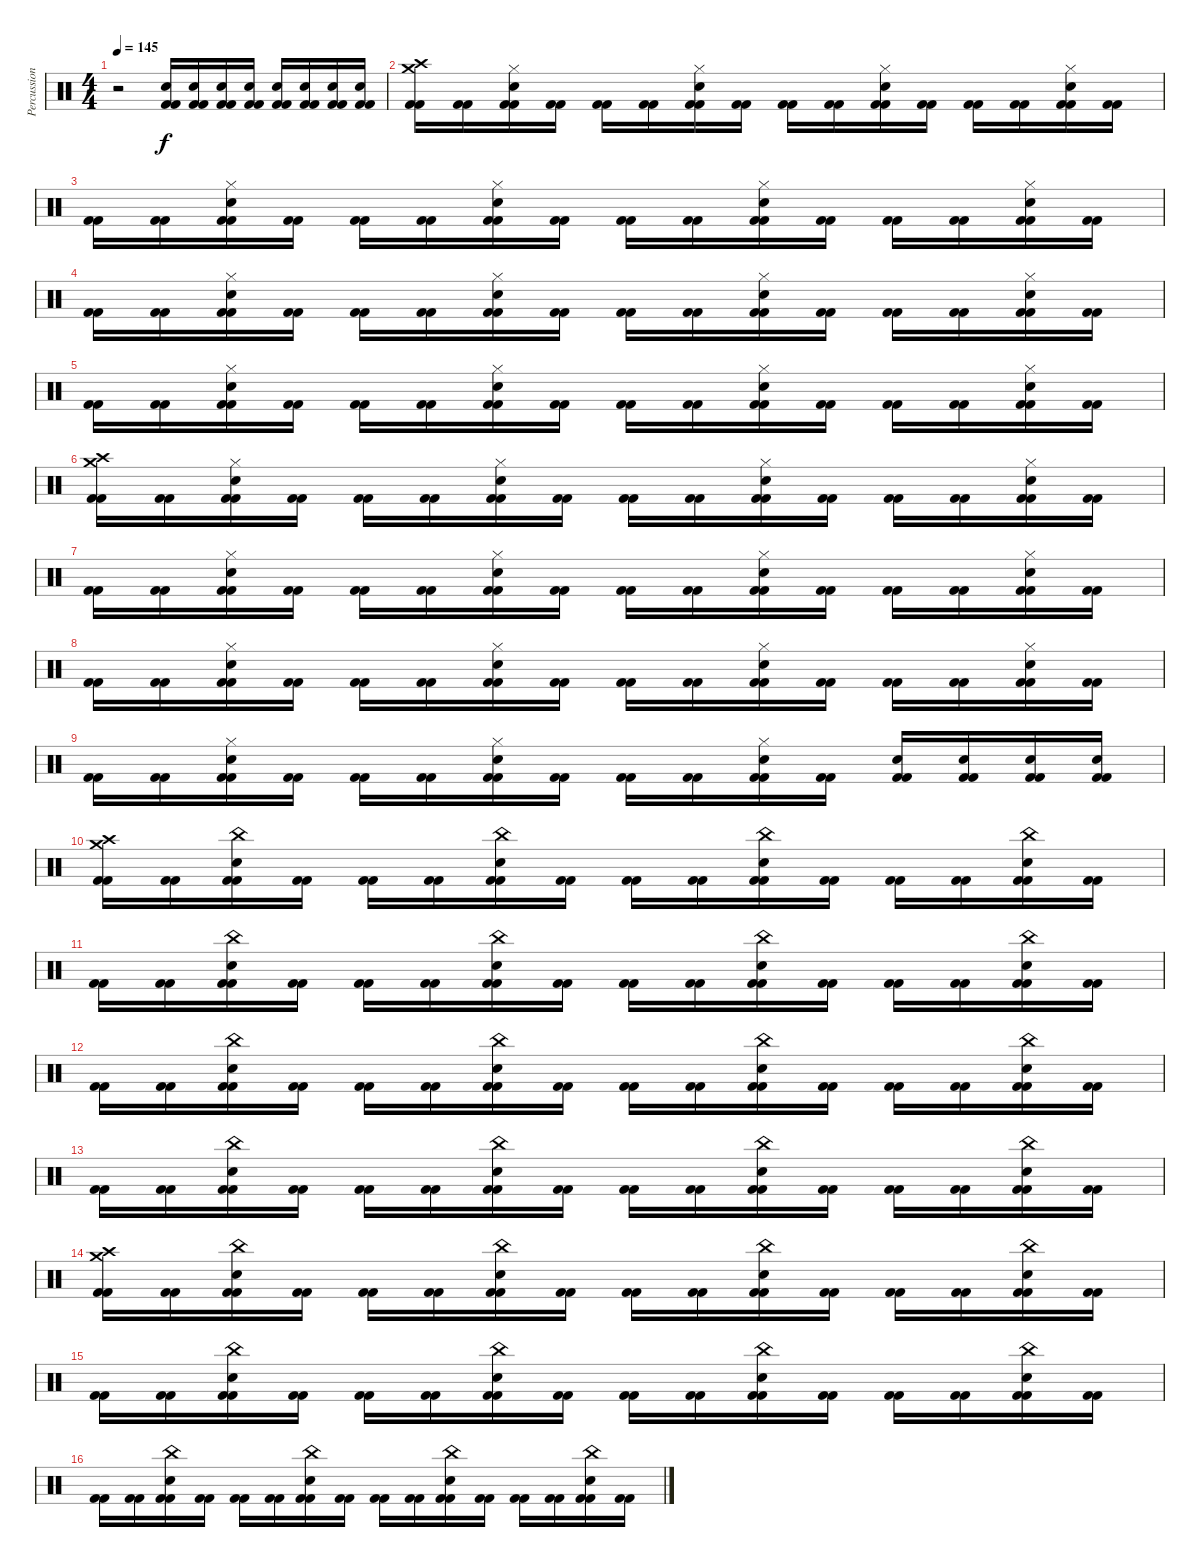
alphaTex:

\track ("Percussion" "Percussion") {instrument percussion}
\staff {score}
\articulation defaults
\ts (4 4)
\tempo 145
\clef neutral
\ks c
r.2{dy f} ("Snare (hit) 2" "Kick (hit) 2" "Kick (hit) 2").16 ("Snare (hit) 2" "Kick (hit) 2" "Kick (hit) 2").16 ("Snare (hit) 2" "Kick (hit) 2" "Kick (hit) 2").16 ("Snare (hit) 2" "Kick (hit) 2" "Kick (hit) 2").16 ("Snare (hit) 2" "Kick (hit) 2" "Kick (hit) 2").16 ("Snare (hit) 2" "Kick (hit) 2" "Kick (hit) 2").16 ("Snare (hit) 2" "Kick (hit) 2" "Kick (hit) 2").16 ("Snare (hit) 2" "Kick (hit) 2" "Kick (hit) 2").16 |
("Crash high (hit)" "Crash medium (hit)" "Kick (hit) 2" "Kick (hit) 2").16 ("Kick (hit) 2" "Kick (hit) 2").16 ("Hi-Hat (closed)" "Snare (hit) 2" "Kick (hit) 2" "Kick (hit) 2").16 ("Kick (hit) 2" "Kick (hit) 2").16 ("Kick (hit) 2" "Kick (hit) 2").16 ("Kick (hit) 2" "Kick (hit) 2").16 ("Hi-Hat (closed)" "Snare (hit) 2" "Kick (hit) 2" "Kick (hit) 2").16 ("Kick (hit) 2" "Kick (hit) 2").16 ("Kick (hit) 2" "Kick (hit) 2").16 ("Kick (hit) 2" "Kick (hit) 2").16 ("Hi-Hat (closed)" "Snare (hit) 2" "Kick (hit) 2" "Kick (hit) 2").16 ("Kick (hit) 2" "Kick (hit) 2").16 ("Kick (hit) 2" "Kick (hit) 2").16 ("Kick (hit) 2" "Kick (hit) 2").16 ("Hi-Hat (closed)" "Snare (hit) 2" "Kick (hit) 2" "Kick (hit) 2").16 ("Kick (hit) 2" "Kick (hit) 2").16 |
("Kick (hit) 2" "Kick (hit) 2").16 ("Kick (hit) 2" "Kick (hit) 2").16 ("Hi-Hat (closed)" "Snare (hit) 2" "Kick (hit) 2" "Kick (hit) 2").16 ("Kick (hit) 2" "Kick (hit) 2").16 ("Kick (hit) 2" "Kick (hit) 2").16 ("Kick (hit) 2" "Kick (hit) 2").16 ("Hi-Hat (closed)" "Snare (hit) 2" "Kick (hit) 2" "Kick (hit) 2").16 ("Kick (hit) 2" "Kick (hit) 2").16 ("Kick (hit) 2" "Kick (hit) 2").16 ("Kick (hit) 2" "Kick (hit) 2").16 ("Hi-Hat (closed)" "Snare (hit) 2" "Kick (hit) 2" "Kick (hit) 2").16 ("Kick (hit) 2" "Kick (hit) 2").16 ("Kick (hit) 2" "Kick (hit) 2").16 ("Kick (hit) 2" "Kick (hit) 2").16 ("Hi-Hat (closed)" "Snare (hit) 2" "Kick (hit) 2" "Kick (hit) 2").16 ("Kick (hit) 2" "Kick (hit) 2").16 |
("Kick (hit) 2" "Kick (hit) 2").16 ("Kick (hit) 2" "Kick (hit) 2").16 ("Hi-Hat (closed)" "Snare (hit) 2" "Kick (hit) 2" "Kick (hit) 2").16 ("Kick (hit) 2" "Kick (hit) 2").16 ("Kick (hit) 2" "Kick (hit) 2").16 ("Kick (hit) 2" "Kick (hit) 2").16 ("Hi-Hat (closed)" "Snare (hit) 2" "Kick (hit) 2" "Kick (hit) 2").16 ("Kick (hit) 2" "Kick (hit) 2").16 ("Kick (hit) 2" "Kick (hit) 2").16 ("Kick (hit) 2" "Kick (hit) 2").16 ("Hi-Hat (closed)" "Snare (hit) 2" "Kick (hit) 2" "Kick (hit) 2").16 ("Kick (hit) 2" "Kick (hit) 2").16 ("Kick (hit) 2" "Kick (hit) 2").16 ("Kick (hit) 2" "Kick (hit) 2").16 ("Hi-Hat (closed)" "Snare (hit) 2" "Kick (hit) 2" "Kick (hit) 2").16 ("Kick (hit) 2" "Kick (hit) 2").16 |
("Kick (hit) 2" "Kick (hit) 2").16 ("Kick (hit) 2" "Kick (hit) 2").16 ("Hi-Hat (closed)" "Snare (hit) 2" "Kick (hit) 2" "Kick (hit) 2").16 ("Kick (hit) 2" "Kick (hit) 2").16 ("Kick (hit) 2" "Kick (hit) 2").16 ("Kick (hit) 2" "Kick (hit) 2").16 ("Hi-Hat (closed)" "Snare (hit) 2" "Kick (hit) 2" "Kick (hit) 2").16 ("Kick (hit) 2" "Kick (hit) 2").16 ("Kick (hit) 2" "Kick (hit) 2").16 ("Kick (hit) 2" "Kick (hit) 2").16 ("Hi-Hat (closed)" "Snare (hit) 2" "Kick (hit) 2" "Kick (hit) 2").16 ("Kick (hit) 2" "Kick (hit) 2").16 ("Kick (hit) 2" "Kick (hit) 2").16 ("Kick (hit) 2" "Kick (hit) 2").16 ("Hi-Hat (closed)" "Snare (hit) 2" "Kick (hit) 2" "Kick (hit) 2").16 ("Kick (hit) 2" "Kick (hit) 2").16 |
("Crash high (hit)" "Crash medium (hit)" "Kick (hit) 2" "Kick (hit) 2").16 ("Kick (hit) 2" "Kick (hit) 2").16 ("Hi-Hat (closed)" "Snare (hit) 2" "Kick (hit) 2" "Kick (hit) 2").16 ("Kick (hit) 2" "Kick (hit) 2").16 ("Kick (hit) 2" "Kick (hit) 2").16 ("Kick (hit) 2" "Kick (hit) 2").16 ("Hi-Hat (closed)" "Snare (hit) 2" "Kick (hit) 2" "Kick (hit) 2").16 ("Kick (hit) 2" "Kick (hit) 2").16 ("Kick (hit) 2" "Kick (hit) 2").16 ("Kick (hit) 2" "Kick (hit) 2").16 ("Hi-Hat (closed)" "Snare (hit) 2" "Kick (hit) 2" "Kick (hit) 2").16 ("Kick (hit) 2" "Kick (hit) 2").16 ("Kick (hit) 2" "Kick (hit) 2").16 ("Kick (hit) 2" "Kick (hit) 2").16 ("Hi-Hat (closed)" "Snare (hit) 2" "Kick (hit) 2" "Kick (hit) 2").16 ("Kick (hit) 2" "Kick (hit) 2").16 |
("Kick (hit) 2" "Kick (hit) 2").16 ("Kick (hit) 2" "Kick (hit) 2").16 ("Hi-Hat (closed)" "Snare (hit) 2" "Kick (hit) 2" "Kick (hit) 2").16 ("Kick (hit) 2" "Kick (hit) 2").16 ("Kick (hit) 2" "Kick (hit) 2").16 ("Kick (hit) 2" "Kick (hit) 2").16 ("Hi-Hat (closed)" "Snare (hit) 2" "Kick (hit) 2" "Kick (hit) 2").16 ("Kick (hit) 2" "Kick (hit) 2").16 ("Kick (hit) 2" "Kick (hit) 2").16 ("Kick (hit) 2" "Kick (hit) 2").16 ("Hi-Hat (closed)" "Snare (hit) 2" "Kick (hit) 2" "Kick (hit) 2").16 ("Kick (hit) 2" "Kick (hit) 2").16 ("Kick (hit) 2" "Kick (hit) 2").16 ("Kick (hit) 2" "Kick (hit) 2").16 ("Hi-Hat (closed)" "Snare (hit) 2" "Kick (hit) 2" "Kick (hit) 2").16 ("Kick (hit) 2" "Kick (hit) 2").16 |
("Kick (hit) 2" "Kick (hit) 2").16 ("Kick (hit) 2" "Kick (hit) 2").16 ("Hi-Hat (closed)" "Snare (hit) 2" "Kick (hit) 2" "Kick (hit) 2").16 ("Kick (hit) 2" "Kick (hit) 2").16 ("Kick (hit) 2" "Kick (hit) 2").16 ("Kick (hit) 2" "Kick (hit) 2").16 ("Hi-Hat (closed)" "Snare (hit) 2" "Kick (hit) 2" "Kick (hit) 2").16 ("Kick (hit) 2" "Kick (hit) 2").16 ("Kick (hit) 2" "Kick (hit) 2").16 ("Kick (hit) 2" "Kick (hit) 2").16 ("Hi-Hat (closed)" "Snare (hit) 2" "Kick (hit) 2" "Kick (hit) 2").16 ("Kick (hit) 2" "Kick (hit) 2").16 ("Kick (hit) 2" "Kick (hit) 2").16 ("Kick (hit) 2" "Kick (hit) 2").16 ("Hi-Hat (closed)" "Snare (hit) 2" "Kick (hit) 2" "Kick (hit) 2").16 ("Kick (hit) 2" "Kick (hit) 2").16 |
("Kick (hit) 2" "Kick (hit) 2").16 ("Kick (hit) 2" "Kick (hit) 2").16 ("Hi-Hat (closed)" "Snare (hit) 2" "Kick (hit) 2" "Kick (hit) 2").16 ("Kick (hit) 2" "Kick (hit) 2").16 ("Kick (hit) 2" "Kick (hit) 2").16 ("Kick (hit) 2" "Kick (hit) 2").16 ("Hi-Hat (closed)" "Snare (hit) 2" "Kick (hit) 2" "Kick (hit) 2").16 ("Kick (hit) 2" "Kick (hit) 2").16 ("Kick (hit) 2" "Kick (hit) 2").16 ("Kick (hit) 2" "Kick (hit) 2").16 ("Hi-Hat (closed)" "Snare (hit) 2" "Kick (hit) 2" "Kick (hit) 2").16 ("Kick (hit) 2" "Kick (hit) 2").16 ("Snare (hit) 2" "Kick (hit) 2" "Kick (hit) 2").16 ("Snare (hit) 2" "Kick (hit) 2" "Kick (hit) 2").16 ("Snare (hit) 2" "Kick (hit) 2" "Kick (hit) 2").16 ("Snare (hit) 2" "Kick (hit) 2" "Kick (hit) 2").16 |
("Crash high (hit)" "Crash medium (hit)" "Kick (hit) 2" "Kick (hit) 2").16 ("Kick (hit) 2" "Kick (hit) 2").16 ("China (hit)" "Snare (hit) 2" "Kick (hit) 2" "Kick (hit) 2").16 ("Kick (hit) 2" "Kick (hit) 2").16 ("Kick (hit) 2" "Kick (hit) 2").16 ("Kick (hit) 2" "Kick (hit) 2").16 ("China (hit)" "Snare (hit) 2" "Kick (hit) 2" "Kick (hit) 2").16 ("Kick (hit) 2" "Kick (hit) 2").16 ("Kick (hit) 2" "Kick (hit) 2").16 ("Kick (hit) 2" "Kick (hit) 2").16 ("China (hit)" "Snare (hit) 2" "Kick (hit) 2" "Kick (hit) 2").16 ("Kick (hit) 2" "Kick (hit) 2").16 ("Kick (hit) 2" "Kick (hit) 2").16 ("Kick (hit) 2" "Kick (hit) 2").16 ("China (hit)" "Snare (hit) 2" "Kick (hit) 2" "Kick (hit) 2").16 ("Kick (hit) 2" "Kick (hit) 2").16 |
("Kick (hit) 2" "Kick (hit) 2").16 ("Kick (hit) 2" "Kick (hit) 2").16 ("China (hit)" "Snare (hit) 2" "Kick (hit) 2" "Kick (hit) 2").16 ("Kick (hit) 2" "Kick (hit) 2").16 ("Kick (hit) 2" "Kick (hit) 2").16 ("Kick (hit) 2" "Kick (hit) 2").16 ("China (hit)" "Snare (hit) 2" "Kick (hit) 2" "Kick (hit) 2").16 ("Kick (hit) 2" "Kick (hit) 2").16 ("Kick (hit) 2" "Kick (hit) 2").16 ("Kick (hit) 2" "Kick (hit) 2").16 ("China (hit)" "Snare (hit) 2" "Kick (hit) 2" "Kick (hit) 2").16 ("Kick (hit) 2" "Kick (hit) 2").16 ("Kick (hit) 2" "Kick (hit) 2").16 ("Kick (hit) 2" "Kick (hit) 2").16 ("China (hit)" "Snare (hit) 2" "Kick (hit) 2" "Kick (hit) 2").16 ("Kick (hit) 2" "Kick (hit) 2").16 |
("Kick (hit) 2" "Kick (hit) 2").16 ("Kick (hit) 2" "Kick (hit) 2").16 ("China (hit)" "Snare (hit) 2" "Kick (hit) 2" "Kick (hit) 2").16 ("Kick (hit) 2" "Kick (hit) 2").16 ("Kick (hit) 2" "Kick (hit) 2").16 ("Kick (hit) 2" "Kick (hit) 2").16 ("China (hit)" "Snare (hit) 2" "Kick (hit) 2" "Kick (hit) 2").16 ("Kick (hit) 2" "Kick (hit) 2").16 ("Kick (hit) 2" "Kick (hit) 2").16 ("Kick (hit) 2" "Kick (hit) 2").16 ("China (hit)" "Snare (hit) 2" "Kick (hit) 2" "Kick (hit) 2").16 ("Kick (hit) 2" "Kick (hit) 2").16 ("Kick (hit) 2" "Kick (hit) 2").16 ("Kick (hit) 2" "Kick (hit) 2").16 ("China (hit)" "Snare (hit) 2" "Kick (hit) 2" "Kick (hit) 2").16 ("Kick (hit) 2" "Kick (hit) 2").16 |
("Kick (hit) 2" "Kick (hit) 2").16 ("Kick (hit) 2" "Kick (hit) 2").16 ("China (hit)" "Snare (hit) 2" "Kick (hit) 2" "Kick (hit) 2").16 ("Kick (hit) 2" "Kick (hit) 2").16 ("Kick (hit) 2" "Kick (hit) 2").16 ("Kick (hit) 2" "Kick (hit) 2").16 ("China (hit)" "Snare (hit) 2" "Kick (hit) 2" "Kick (hit) 2").16 ("Kick (hit) 2" "Kick (hit) 2").16 ("Kick (hit) 2" "Kick (hit) 2").16 ("Kick (hit) 2" "Kick (hit) 2").16 ("China (hit)" "Snare (hit) 2" "Kick (hit) 2" "Kick (hit) 2").16 ("Kick (hit) 2" "Kick (hit) 2").16 ("Kick (hit) 2" "Kick (hit) 2").16 ("Kick (hit) 2" "Kick (hit) 2").16 ("China (hit)" "Snare (hit) 2" "Kick (hit) 2" "Kick (hit) 2").16 ("Kick (hit) 2" "Kick (hit) 2").16 |
("Crash high (hit)" "Crash medium (hit)" "Kick (hit) 2" "Kick (hit) 2").16 ("Kick (hit) 2" "Kick (hit) 2").16 ("China (hit)" "Snare (hit) 2" "Kick (hit) 2" "Kick (hit) 2").16 ("Kick (hit) 2" "Kick (hit) 2").16 ("Kick (hit) 2" "Kick (hit) 2").16 ("Kick (hit) 2" "Kick (hit) 2").16 ("China (hit)" "Snare (hit) 2" "Kick (hit) 2" "Kick (hit) 2").16 ("Kick (hit) 2" "Kick (hit) 2").16 ("Kick (hit) 2" "Kick (hit) 2").16 ("Kick (hit) 2" "Kick (hit) 2").16 ("China (hit)" "Snare (hit) 2" "Kick (hit) 2" "Kick (hit) 2").16 ("Kick (hit) 2" "Kick (hit) 2").16 ("Kick (hit) 2" "Kick (hit) 2").16 ("Kick (hit) 2" "Kick (hit) 2").16 ("China (hit)" "Snare (hit) 2" "Kick (hit) 2" "Kick (hit) 2").16 ("Kick (hit) 2" "Kick (hit) 2").16 |
("Kick (hit) 2" "Kick (hit) 2").16 ("Kick (hit) 2" "Kick (hit) 2").16 ("China (hit)" "Snare (hit) 2" "Kick (hit) 2" "Kick (hit) 2").16 ("Kick (hit) 2" "Kick (hit) 2").16 ("Kick (hit) 2" "Kick (hit) 2").16 ("Kick (hit) 2" "Kick (hit) 2").16 ("China (hit)" "Snare (hit) 2" "Kick (hit) 2" "Kick (hit) 2").16 ("Kick (hit) 2" "Kick (hit) 2").16 ("Kick (hit) 2" "Kick (hit) 2").16 ("Kick (hit) 2" "Kick (hit) 2").16 ("China (hit)" "Snare (hit) 2" "Kick (hit) 2" "Kick (hit) 2").16 ("Kick (hit) 2" "Kick (hit) 2").16 ("Kick (hit) 2" "Kick (hit) 2").16 ("Kick (hit) 2" "Kick (hit) 2").16 ("China (hit)" "Snare (hit) 2" "Kick (hit) 2" "Kick (hit) 2").16 ("Kick (hit) 2" "Kick (hit) 2").16 |
("Kick (hit) 2" "Kick (hit) 2").16 ("Kick (hit) 2" "Kick (hit) 2").16 ("China (hit)" "Snare (hit) 2" "Kick (hit) 2" "Kick (hit) 2").16 ("Kick (hit) 2" "Kick (hit) 2").16 ("Kick (hit) 2" "Kick (hit) 2").16 ("Kick (hit) 2" "Kick (hit) 2").16 ("China (hit)" "Snare (hit) 2" "Kick (hit) 2" "Kick (hit) 2").16 ("Kick (hit) 2" "Kick (hit) 2").16 ("Kick (hit) 2" "Kick (hit) 2").16 ("Kick (hit) 2" "Kick (hit) 2").16 ("China (hit)" "Snare (hit) 2" "Kick (hit) 2" "Kick (hit) 2").16 ("Kick (hit) 2" "Kick (hit) 2").16 ("Kick (hit) 2" "Kick (hit) 2").16 ("Kick (hit) 2" "Kick (hit) 2").16 ("China (hit)" "Snare (hit) 2" "Kick (hit) 2" "Kick (hit) 2").16 ("Kick (hit) 2" "Kick (hit) 2").16
